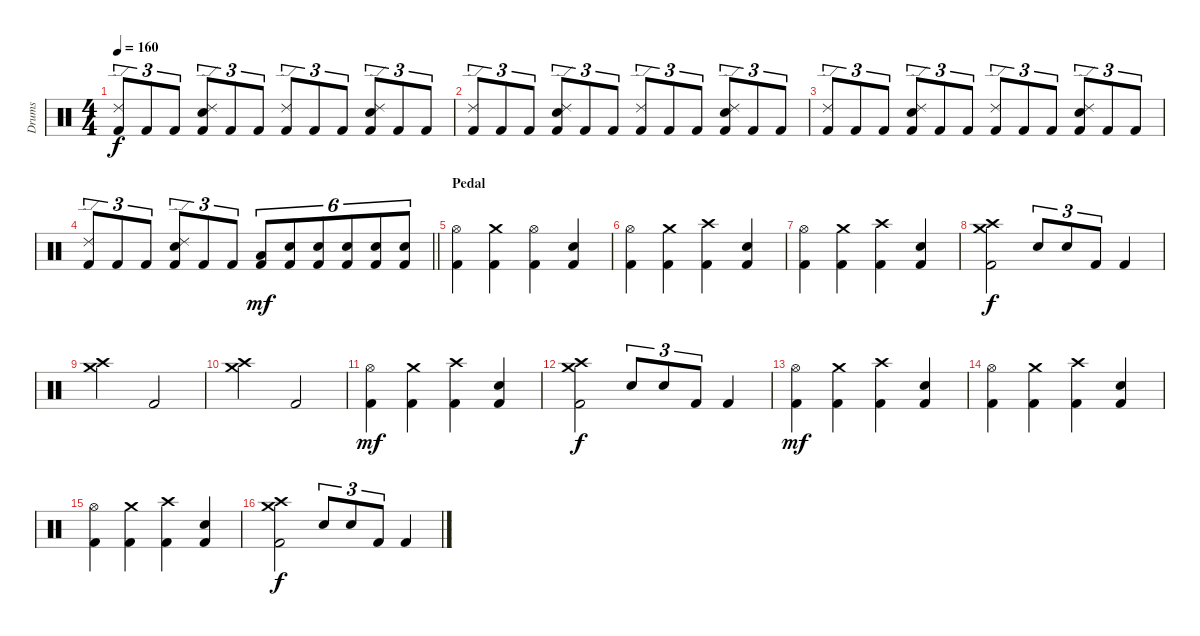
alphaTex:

\track ("Drums" "Drums") {instrument percussion}
\staff {score}
\articulation defaults
\ts (4 4)
\tempo 160
\clef neutral
\ks c
("Ride (edge) 2" "Kick (hit) 2").8{tu (3 2) dy f} "Kick (hit) 2".8{tu (3 2)} "Kick (hit) 2".8{tu (3 2)} ("Ride (edge) 2" "Snare (hit) 2" "Kick (hit) 2").8{tu (3 2)} "Kick (hit) 2".8{tu (3 2)} "Kick (hit) 2".8{tu (3 2)} ("Ride (edge) 2" "Kick (hit) 2").8{tu (3 2)} "Kick (hit) 2".8{tu (3 2)} "Kick (hit) 2".8{tu (3 2)} ("Ride (edge) 2" "Snare (hit) 2" "Kick (hit) 2").8{tu (3 2)} "Kick (hit) 2".8{tu (3 2)} "Kick (hit) 2".8{tu (3 2)} |
("Ride (edge) 2" "Kick (hit) 2").8{tu (3 2)} "Kick (hit) 2".8{tu (3 2)} "Kick (hit) 2".8{tu (3 2)} ("Ride (edge) 2" "Snare (hit) 2" "Kick (hit) 2").8{tu (3 2)} "Kick (hit) 2".8{tu (3 2)} "Kick (hit) 2".8{tu (3 2)} ("Ride (edge) 2" "Kick (hit) 2").8{tu (3 2)} "Kick (hit) 2".8{tu (3 2)} "Kick (hit) 2".8{tu (3 2)} ("Ride (edge) 2" "Snare (hit) 2" "Kick (hit) 2").8{tu (3 2)} "Kick (hit) 2".8{tu (3 2)} "Kick (hit) 2".8{tu (3 2)} |
("Ride (edge) 2" "Kick (hit) 2").8{tu (3 2)} "Kick (hit) 2".8{tu (3 2)} "Kick (hit) 2".8{tu (3 2)} ("Ride (edge) 2" "Snare (hit) 2" "Kick (hit) 2").8{tu (3 2)} "Kick (hit) 2".8{tu (3 2)} "Kick (hit) 2".8{tu (3 2)} ("Ride (edge) 2" "Kick (hit) 2").8{tu (3 2)} "Kick (hit) 2".8{tu (3 2)} "Kick (hit) 2".8{tu (3 2)} ("Ride (edge) 2" "Snare (hit) 2" "Kick (hit) 2").8{tu (3 2)} "Kick (hit) 2".8{tu (3 2)} "Kick (hit) 2".8{tu (3 2)} |
\barLineRight lightlight
("Ride (edge) 2" "Kick (hit) 2").8{tu (3 2)} "Kick (hit) 2".8{tu (3 2)} "Kick (hit) 2".8{tu (3 2)} ("Ride (edge) 2" "Snare (hit) 2" "Kick (hit) 2").8{tu (3 2)} "Kick (hit) 2".8{tu (3 2)} "Kick (hit) 2".8{tu (3 2)} ("Low Tom (hit)" "Kick (hit) 2").8{tu (6 4) dy mf} ("Snare (hit) 2" "Kick (hit) 2").8{tu (6 4)} ("Snare (hit) 2" "Kick (hit) 2").8{tu (6 4)} ("Snare (hit) 2" "Kick (hit) 2").8{tu (6 4)} ("Snare (hit) 2" "Kick (hit) 2").8{tu (6 4)} ("Snare (hit) 2" "Kick (hit) 2").8{tu (6 4)} |
\section ("" "Pedal")
("Hi-Hat (open)" "Kick (hit) 2").4 ("Crash medium (hit)" "Kick (hit) 2").4 ("Hi-Hat (open)" "Kick (hit) 2").4 ("Snare (hit) 2" "Kick (hit) 2").4 |
("Hi-Hat (open)" "Kick (hit) 2").4 ("Crash medium (hit)" "Kick (hit) 2").4 ("Crash high (hit)" "Kick (hit) 2").4 ("Snare (hit) 2" "Kick (hit) 2").4 |
("Hi-Hat (open)" "Kick (hit) 2").4 ("Crash medium (hit)" "Kick (hit) 2").4 ("Crash high (hit)" "Kick (hit) 2").4 ("Snare (hit) 2" "Kick (hit) 2").4 |
("Crash high (hit)" "Crash medium (hit)" "Kick (hit) 2").2{dy f} "Snare (hit) 2".8{tu (3 2)} "Snare (hit) 2".8{tu (3 2)} "Kick (hit) 2".8{tu (3 2)} "Kick (hit) 2".4 |
("Crash medium (hit)" "Crash high (hit)").2 "Kick (hit) 2".2 |
("Crash medium (hit)" "Crash high (hit)").2 "Kick (hit) 2".2 |
("Hi-Hat (open)" "Kick (hit) 2").4{dy mf} ("Crash medium (hit)" "Kick (hit) 2").4 ("Crash high (hit)" "Kick (hit) 2").4 ("Snare (hit) 2" "Kick (hit) 2").4 |
("Crash high (hit)" "Crash medium (hit)" "Kick (hit) 2").2{dy f} "Snare (hit) 2".8{tu (3 2)} "Snare (hit) 2".8{tu (3 2)} "Kick (hit) 2".8{tu (3 2)} "Kick (hit) 2".4 |
("Hi-Hat (open)" "Kick (hit) 2").4{dy mf} ("Crash medium (hit)" "Kick (hit) 2").4 ("Crash high (hit)" "Kick (hit) 2").4 ("Snare (hit) 2" "Kick (hit) 2").4 |
("Hi-Hat (open)" "Kick (hit) 2").4 ("Crash medium (hit)" "Kick (hit) 2").4 ("Crash high (hit)" "Kick (hit) 2").4 ("Snare (hit) 2" "Kick (hit) 2").4 |
("Hi-Hat (open)" "Kick (hit) 2").4 ("Crash medium (hit)" "Kick (hit) 2").4 ("Crash high (hit)" "Kick (hit) 2").4 ("Snare (hit) 2" "Kick (hit) 2").4 |
("Crash high (hit)" "Crash medium (hit)" "Kick (hit) 2").2{dy f} "Snare (hit) 2".8{tu (3 2)} "Snare (hit) 2".8{tu (3 2)} "Kick (hit) 2".8{tu (3 2)} "Kick (hit) 2".4
